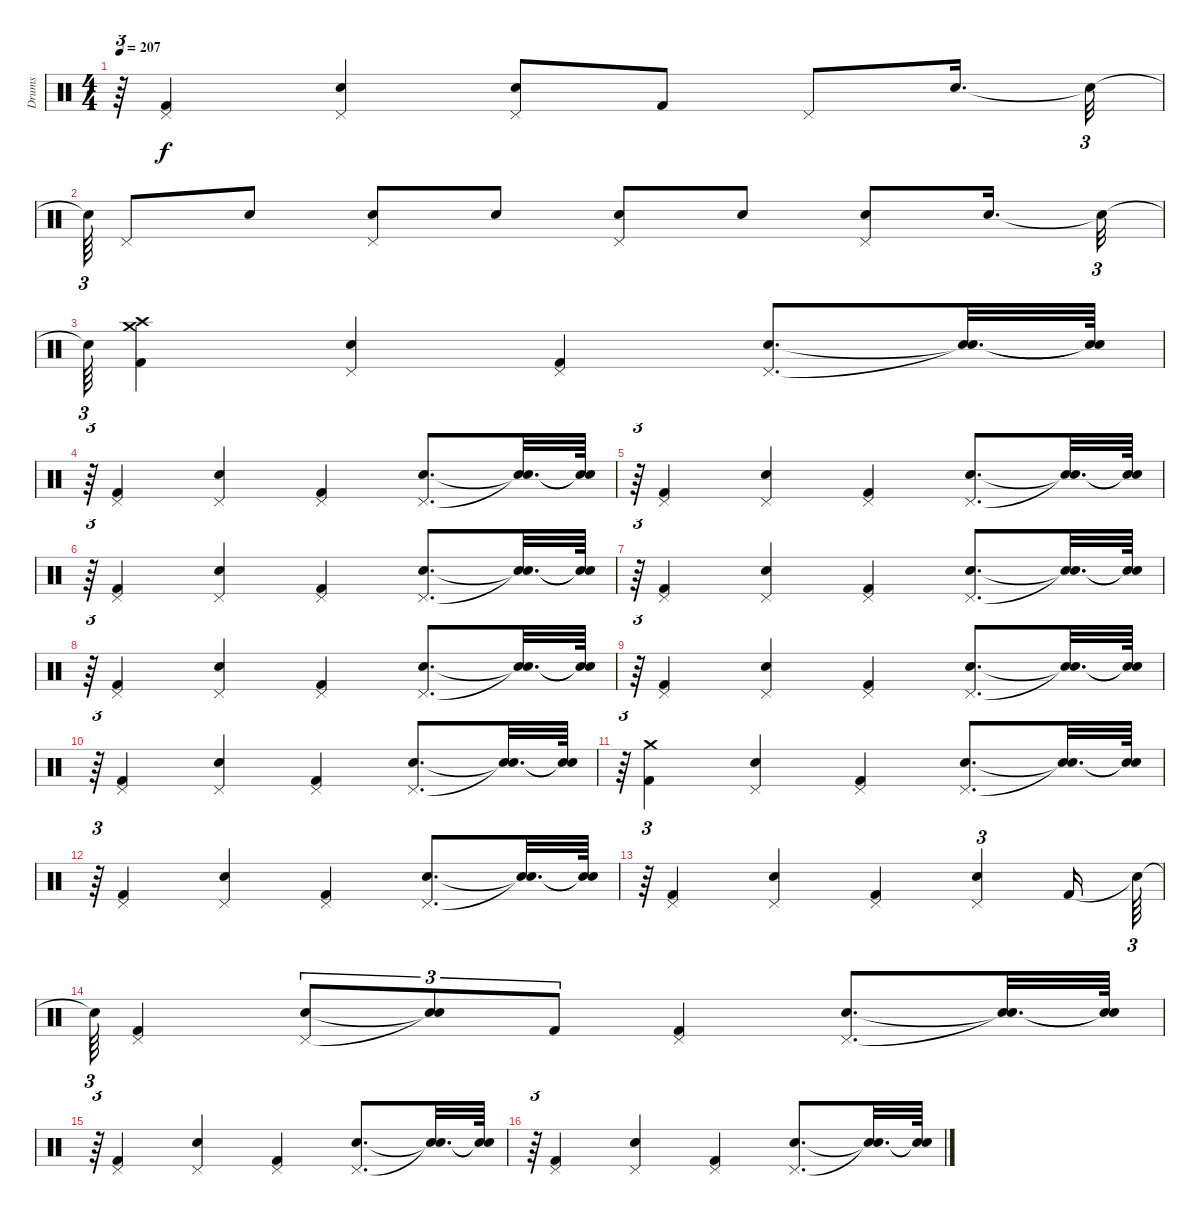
\track ("Drums" "Drums") {instrument percussion}
\staff {score}
\articulation defaults
\ts (4 4)
\tempo 207
\clef neutral
\ks c
r.64{tu (3 2) dy f} ("Pedal Hi-Hat (hit)" "Kick (hit) 2").4 ("Pedal Hi-Hat (hit)" "Snare (hit) 2").4 ("Pedal Hi-Hat (hit)" "Snare (hit) 2").8 "Kick (hit) 2".8 "Pedal Hi-Hat (hit)".8 "Snare (hit) 2".16{d} "Snare (hit)"{t}.32{tu (3 2)} |
"Snare (hit)"{t}.64{tu (3 2)} "Pedal Hi-Hat (hit)".8 "Snare (hit) 2".8 ("Pedal Hi-Hat (hit)" "Snare (hit) 2").8 "Snare (hit) 2".8 ("Pedal Hi-Hat (hit)" "Snare (hit) 2").8 "Snare (hit) 2".8 ("Pedal Hi-Hat (hit)" "Snare (hit) 2").8 "Snare (hit) 2".16{d} "Snare (hit)"{t}.32{tu (3 2)} |
"Snare (hit)"{t}.64{tu (3 2)} ("Kick (hit) 2" "Crash high (hit)" "Crash medium (hit)").4 ("Pedal Hi-Hat (hit)" "Snare (hit) 2").4 ("Pedal Hi-Hat (hit)" "Kick (hit) 2").4 ("Pedal Hi-Hat (hit)" "Snare (hit) 2").8{d} ("Snare (hit)"{t} "Snare (hit)"{t}).32{d} ("Snare (hit)"{t} "Snare (hit)"{t}).64 |
r.64{tu (3 2)} ("Pedal Hi-Hat (hit)" "Kick (hit) 2").4 ("Pedal Hi-Hat (hit)" "Snare (hit) 2").4 ("Pedal Hi-Hat (hit)" "Kick (hit) 2").4 ("Pedal Hi-Hat (hit)" "Snare (hit) 2").8{d} ("Snare (hit)"{t} "Snare (hit)"{t}).32{d} ("Snare (hit)"{t} "Snare (hit)"{t}).64 |
r.64{tu (3 2)} ("Pedal Hi-Hat (hit)" "Kick (hit) 2").4 ("Pedal Hi-Hat (hit)" "Snare (hit) 2").4 ("Pedal Hi-Hat (hit)" "Kick (hit) 2").4 ("Pedal Hi-Hat (hit)" "Snare (hit) 2").8{d} ("Snare (hit)"{t} "Snare (hit)"{t}).32{d} ("Snare (hit)"{t} "Snare (hit)"{t}).64 |
r.64{tu (3 2)} ("Pedal Hi-Hat (hit)" "Kick (hit) 2").4 ("Pedal Hi-Hat (hit)" "Snare (hit) 2").4 ("Pedal Hi-Hat (hit)" "Kick (hit) 2").4 ("Pedal Hi-Hat (hit)" "Snare (hit) 2").8{d} ("Snare (hit)"{t} "Snare (hit)"{t}).32{d} ("Snare (hit)"{t} "Snare (hit)"{t}).64 |
r.64{tu (3 2)} ("Pedal Hi-Hat (hit)" "Kick (hit) 2").4 ("Pedal Hi-Hat (hit)" "Snare (hit) 2").4 ("Pedal Hi-Hat (hit)" "Kick (hit) 2").4 ("Pedal Hi-Hat (hit)" "Snare (hit) 2").8{d} ("Snare (hit)"{t} "Snare (hit)"{t}).32{d} ("Snare (hit)"{t} "Snare (hit)"{t}).64 |
r.64{tu (3 2)} ("Pedal Hi-Hat (hit)" "Kick (hit) 2").4 ("Pedal Hi-Hat (hit)" "Snare (hit) 2").4 ("Pedal Hi-Hat (hit)" "Kick (hit) 2").4 ("Pedal Hi-Hat (hit)" "Snare (hit) 2").8{d} ("Snare (hit)"{t} "Snare (hit)"{t}).32{d} ("Snare (hit)"{t} "Snare (hit)"{t}).64 |
r.64{tu (3 2)} ("Pedal Hi-Hat (hit)" "Kick (hit) 2").4 ("Pedal Hi-Hat (hit)" "Snare (hit) 2").4 ("Pedal Hi-Hat (hit)" "Kick (hit) 2").4 ("Pedal Hi-Hat (hit)" "Snare (hit) 2").8{d} ("Snare (hit)"{t} "Snare (hit)"{t}).32{d} ("Snare (hit)"{t} "Snare (hit)"{t}).64 |
r.64{tu (3 2)} ("Pedal Hi-Hat (hit)" "Kick (hit) 2").4 ("Pedal Hi-Hat (hit)" "Snare (hit) 2").4 ("Pedal Hi-Hat (hit)" "Kick (hit) 2").4 ("Pedal Hi-Hat (hit)" "Snare (hit) 2").8{d} ("Snare (hit)"{t} "Snare (hit)"{t}).32{d} ("Snare (hit)"{t} "Snare (hit)"{t}).64 |
r.64{tu (3 2)} ("Kick (hit) 2" "Crash medium (hit)").4 ("Pedal Hi-Hat (hit)" "Snare (hit) 2").4 ("Pedal Hi-Hat (hit)" "Kick (hit) 2").4 ("Pedal Hi-Hat (hit)" "Snare (hit) 2").8{d} ("Snare (hit)"{t} "Snare (hit)"{t}).32{d} ("Snare (hit)"{t} "Snare (hit)"{t}).64 |
r.64{tu (3 2)} ("Pedal Hi-Hat (hit)" "Kick (hit) 2").4 ("Pedal Hi-Hat (hit)" "Snare (hit) 2").4 ("Pedal Hi-Hat (hit)" "Kick (hit) 2").4 ("Pedal Hi-Hat (hit)" "Snare (hit) 2").8{d} ("Snare (hit)"{t} "Snare (hit)"{t}).32{d} ("Snare (hit)"{t} "Snare (hit)"{t}).64 |
r.64{tu (3 2)} ("Pedal Hi-Hat (hit)" "Kick (hit) 2").4 ("Pedal Hi-Hat (hit)" "Snare (hit) 2").4 ("Pedal Hi-Hat (hit)" "Kick (hit) 2").4 ("Pedal Hi-Hat (hit)" "Snare (hit) 2").4{tu (3 2)} "Kick (hit) 2".16 "Snare (hit)"{t}.64{tu (3 2)} |
"Snare (hit)"{t}.64{tu (3 2)} ("Pedal Hi-Hat (hit)" "Kick (hit) 2").4 ("Pedal Hi-Hat (hit)" "Snare (hit) 2").8{tu (3 2)} ("Snare (hit)"{t} "Snare (hit)"{t}).8{tu (3 2)} "Kick (hit) 2".8{tu (3 2)} ("Pedal Hi-Hat (hit)" "Kick (hit) 2").4 ("Pedal Hi-Hat (hit)" "Snare (hit) 2").8{d} ("Snare (hit)"{t} "Snare (hit)"{t}).32{d} ("Snare (hit)"{t} "Snare (hit)"{t}).64 |
r.64{tu (3 2)} ("Pedal Hi-Hat (hit)" "Kick (hit) 2").4 ("Pedal Hi-Hat (hit)" "Snare (hit) 2").4 ("Pedal Hi-Hat (hit)" "Kick (hit) 2").4 ("Pedal Hi-Hat (hit)" "Snare (hit) 2").8{d} ("Snare (hit)"{t} "Snare (hit)"{t}).32{d} ("Snare (hit)"{t} "Snare (hit)"{t}).64 |
r.64{tu (3 2)} ("Pedal Hi-Hat (hit)" "Kick (hit) 2").4 ("Pedal Hi-Hat (hit)" "Snare (hit) 2").4 ("Pedal Hi-Hat (hit)" "Kick (hit) 2").4 ("Pedal Hi-Hat (hit)" "Snare (hit) 2").8{d} ("Snare (hit)"{t} "Snare (hit)"{t}).32{d} ("Snare (hit)"{t} "Snare (hit)"{t}).64
